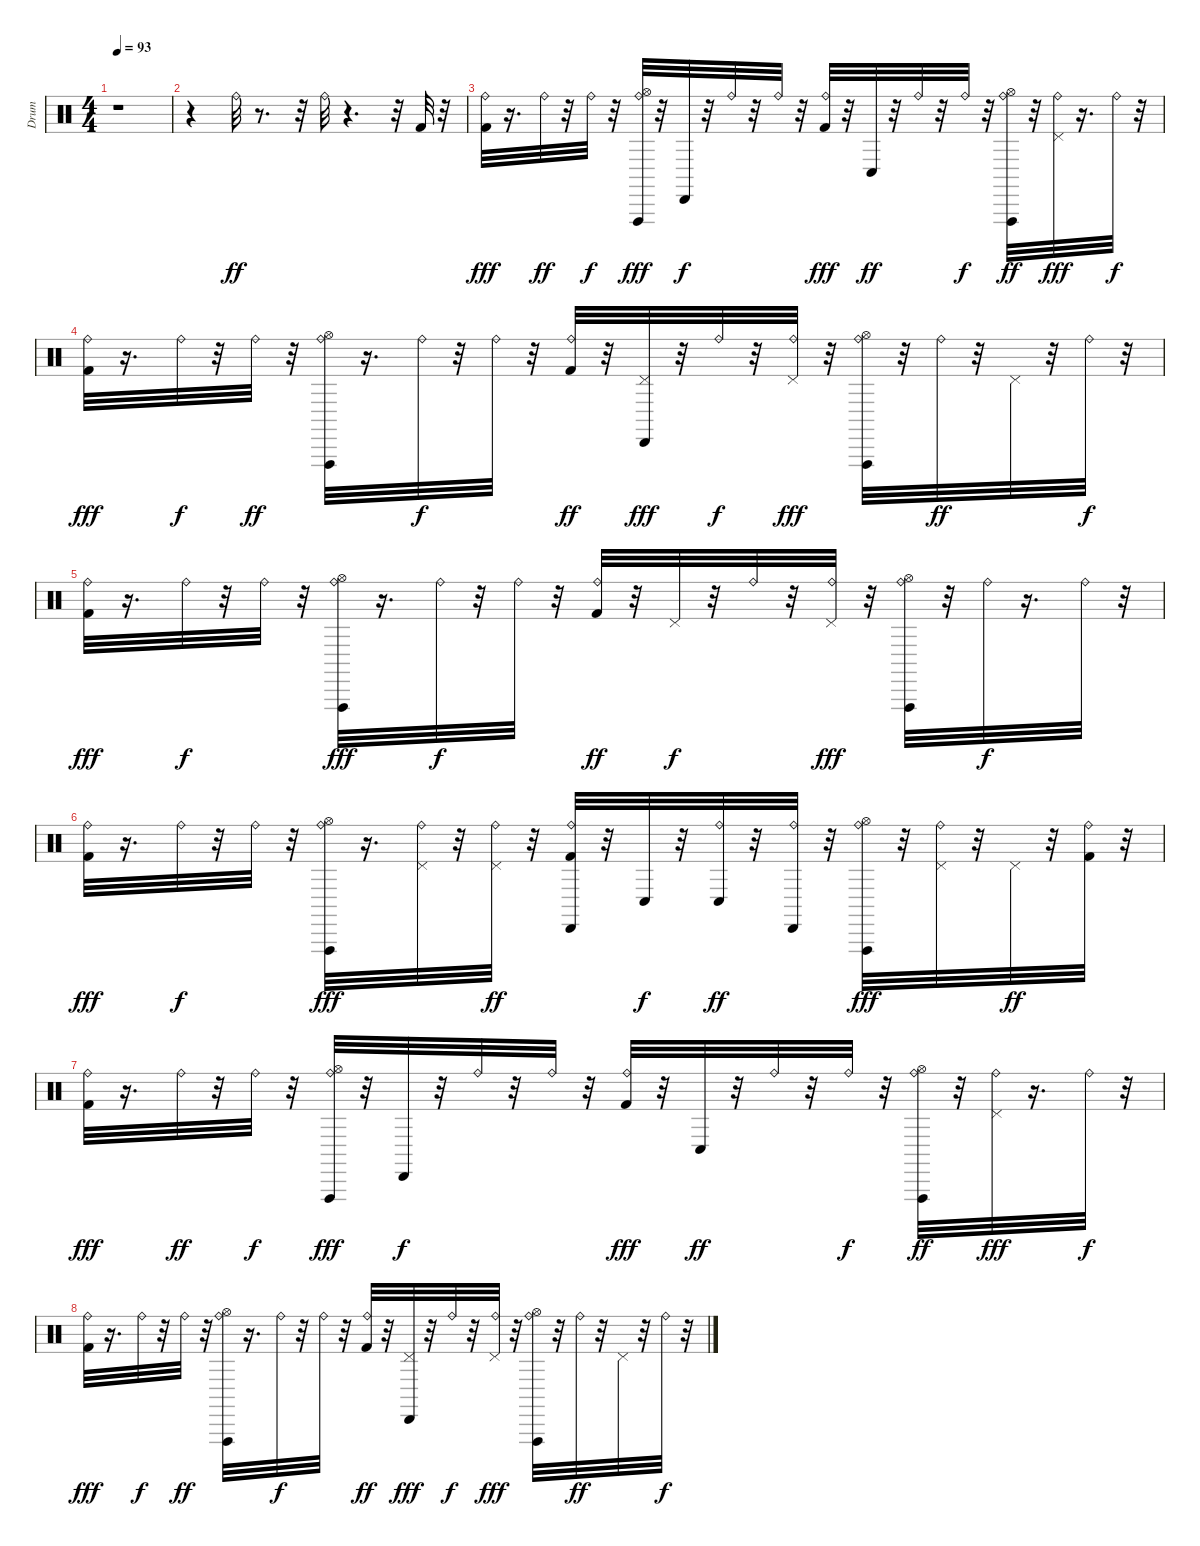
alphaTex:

\track ("Drum" "Drum") {instrument percussion}
\staff {score}
\articulation defaults
\ts (4 4)
\tempo 93
\clef neutral
\ks c
r.1{dy ff} |
r.4 "Ride (bell)".32 r.8{d} r.32 "Ride (bell)".32 r.4{d} r.32 "Kick (hit) 2".32 r.32 |
("Kick (hit) 2" "Ride (bell)").32{dy fff} r.16{d} "Ride (bell)".32{dy ff} r.32 "Ride (bell)".32{dy f} r.32 ("Ride (bell)" "Vibraslap (hit)" "Hi-Hat (open)").32{dy fff} r.32 "Cabasa (hit)".32{dy f} r.32 "Ride (bell)".32 r.32 "Ride (bell)".32 r.32 ("Kick (hit) 2" "Ride (bell)").32{dy fff} r.32 "Conga low (hit)".32{dy ff} r.32 "Ride (bell)".32 r.32 "Ride (bell)".32{dy f} r.32 ("Ride (bell)" "Vibraslap (hit)" "Hi-Hat (open)").32{dy ff} r.32 ("Ride (bell)" "Pedal Hi-Hat (hit)").32{dy fff} r.16{d} "Ride (bell)".32{dy f} r.32 |
("Kick (hit) 2" "Ride (bell)").32{dy fff} r.16{d} "Ride (bell)".32{dy f} r.32 "Ride (bell)".32{dy ff} r.32 ("Ride (bell)" "Vibraslap (hit)" "Hi-Hat (open)").32 r.16{d} "Ride (bell)".32{dy f} r.32 "Ride (bell)".32 r.32 ("Kick (hit) 2" "Ride (bell)").32{dy ff} r.32 ("Cabasa (hit)" "Pedal Hi-Hat (hit)").32{dy fff} r.32 "Ride (bell)".32{dy f} r.32 ("Ride (bell)" "Pedal Hi-Hat (hit)").32{dy fff} r.32 ("Ride (bell)" "Vibraslap (hit)" "Hi-Hat (open)").32 r.32 "Ride (bell)".32{dy ff} r.32 "Pedal Hi-Hat (hit)".32 r.32 "Ride (bell)".32{dy f} r.32 |
("Kick (hit) 2" "Ride (bell)").32{dy fff} r.16{d} "Ride (bell)".32{dy f} r.32 "Ride (bell)".32 r.32 ("Ride (bell)" "Vibraslap (hit)" "Hi-Hat (open)").32{dy fff} r.16{d} "Ride (bell)".32{dy f} r.32 "Ride (bell)".32 r.32 ("Kick (hit) 2" "Ride (bell)").32{dy ff} r.32 "Pedal Hi-Hat (hit)".32{dy f} r.32 "Ride (bell)".32 r.32 ("Ride (bell)" "Pedal Hi-Hat (hit)").32{dy fff} r.32 ("Ride (bell)" "Vibraslap (hit)" "Hi-Hat (open)").32 r.32 "Ride (bell)".32{dy f} r.16{d} "Ride (bell)".32 r.32 |
("Kick (hit) 2" "Ride (bell)").32{dy fff} r.16{d} "Ride (bell)".32{dy f} r.32 "Ride (bell)".32 r.32 ("Ride (bell)" "Vibraslap (hit)" "Hi-Hat (open)").32{dy fff} r.16{d} ("Ride (bell)" "Pedal Hi-Hat (hit)").32 r.32 ("Ride (bell)" "Pedal Hi-Hat (hit)").32{dy ff} r.32 ("Cabasa (hit)" "Kick (hit) 2" "Ride (bell)").32 r.32 "Conga low (hit)".32{dy f} r.32 ("Conga low (hit)" "Ride (bell)").32{dy ff} r.32 ("Cabasa (hit)" "Ride (bell)").32 r.32 ("Ride (bell)" "Vibraslap (hit)" "Hi-Hat (open)").32{dy fff} r.32 ("Ride (bell)" "Pedal Hi-Hat (hit)").32 r.32 "Pedal Hi-Hat (hit)".32{dy ff} r.32 ("Kick (hit) 2" "Ride (bell)").32 r.32 |
("Kick (hit) 2" "Ride (bell)").32{dy fff} r.16{d} "Ride (bell)".32{dy ff} r.32 "Ride (bell)".32{dy f} r.32 ("Ride (bell)" "Vibraslap (hit)" "Hi-Hat (open)").32{dy fff} r.32 "Cabasa (hit)".32{dy f} r.32 "Ride (bell)".32 r.32 "Ride (bell)".32 r.32 ("Kick (hit) 2" "Ride (bell)").32{dy fff} r.32 "Conga low (hit)".32{dy ff} r.32 "Ride (bell)".32 r.32 "Ride (bell)".32{dy f} r.32 ("Ride (bell)" "Vibraslap (hit)" "Hi-Hat (open)").32{dy ff} r.32 ("Ride (bell)" "Pedal Hi-Hat (hit)").32{dy fff} r.16{d} "Ride (bell)".32{dy f} r.32 |
("Kick (hit) 2" "Ride (bell)").32{dy fff} r.16{d} "Ride (bell)".32{dy f} r.32 "Ride (bell)".32{dy ff} r.32 ("Ride (bell)" "Vibraslap (hit)" "Hi-Hat (open)").32 r.16{d} "Ride (bell)".32{dy f} r.32 "Ride (bell)".32 r.32 ("Kick (hit) 2" "Ride (bell)").32{dy ff} r.32 ("Cabasa (hit)" "Pedal Hi-Hat (hit)").32{dy fff} r.32 "Ride (bell)".32{dy f} r.32 ("Ride (bell)" "Pedal Hi-Hat (hit)").32{dy fff} r.32 ("Ride (bell)" "Vibraslap (hit)" "Hi-Hat (open)").32 r.32 "Ride (bell)".32{dy ff} r.32 "Pedal Hi-Hat (hit)".32 r.32 "Ride (bell)".32{dy f} r.32
